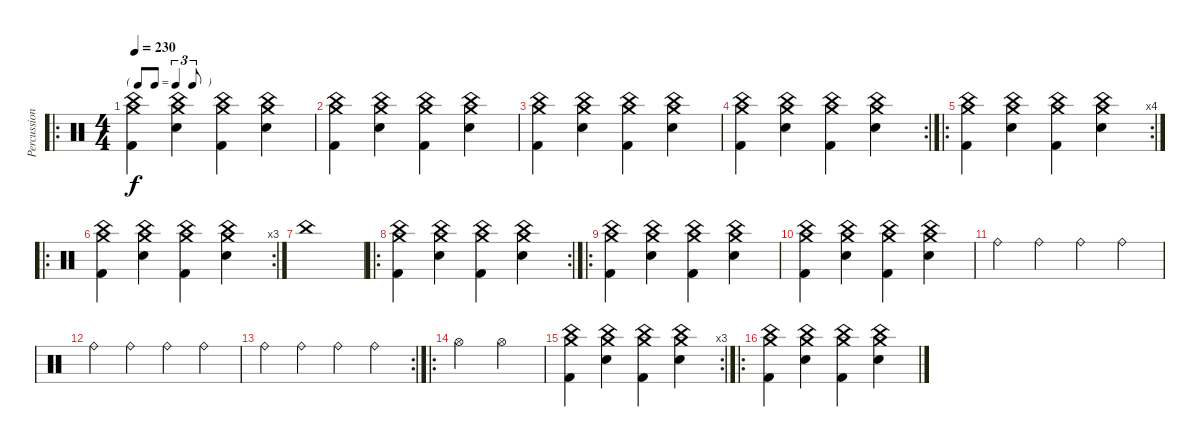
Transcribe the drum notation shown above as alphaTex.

\track ("Percussion" "Percussion") {instrument percussion}
\staff {score}
\articulation defaults
\ro
\ts (4 4)
\tf triplet8th
\tempo 230
\clef neutral
\ks c
("China (hit)" "Crash medium (hit)" "Kick (hit) 2").4{dy f} ("Electric Snare (hit)" "China (hit)" "Crash medium (hit)").4 ("Kick (hit) 2" "China (hit)" "Crash medium (hit)").4 ("Electric Snare (hit)" "China (hit)" "Crash medium (hit)").4 |
("China (hit)" "Crash medium (hit)" "Kick (hit) 2").4 ("Electric Snare (hit)" "China (hit)" "Crash medium (hit)").4 ("Kick (hit) 2" "China (hit)" "Crash medium (hit)").4 ("Electric Snare (hit)" "China (hit)" "Crash medium (hit)").4 |
("China (hit)" "Crash medium (hit)" "Kick (hit) 2").4 ("Electric Snare (hit)" "China (hit)" "Crash medium (hit)").4 ("Kick (hit) 2" "China (hit)" "Crash medium (hit)").4 ("Electric Snare (hit)" "China (hit)" "Crash medium (hit)").4 |
\rc 2
("China (hit)" "Crash medium (hit)" "Kick (hit) 2").4 ("Electric Snare (hit)" "China (hit)" "Crash medium (hit)").4 ("Kick (hit) 2" "China (hit)" "Crash medium (hit)").4 ("Electric Snare (hit)" "China (hit)" "Crash medium (hit)").4 |
\ro
\rc 4
("China (hit)" "Crash medium (hit)" "Kick (hit) 2").4 ("Electric Snare (hit)" "China (hit)" "Crash medium (hit)").4 ("Kick (hit) 2" "China (hit)" "Crash medium (hit)").4 ("Electric Snare (hit)" "China (hit)" "Crash medium (hit)").4 |
\ro
\rc 3
("China (hit)" "Crash medium (hit)" "Kick (hit) 2").4 ("Electric Snare (hit)" "China (hit)" "Crash medium (hit)").4 ("Kick (hit) 2" "China (hit)" "Crash medium (hit)").4 ("Electric Snare (hit)" "China (hit)" "Crash medium (hit)").4 |
"China (hit)".1 |
\ro
\rc 2
("China (hit)" "Crash medium (hit)" "Kick (hit) 2").4 ("Electric Snare (hit)" "China (hit)" "Crash medium (hit)").4 ("Kick (hit) 2" "China (hit)" "Crash medium (hit)").4 ("Electric Snare (hit)" "China (hit)" "Crash medium (hit)").4 |
\ro
("China (hit)" "Crash medium (hit)" "Kick (hit) 2").4 ("Electric Snare (hit)" "China (hit)" "Crash medium (hit)").4 ("Kick (hit) 2" "China (hit)" "Crash medium (hit)").4 ("Electric Snare (hit)" "China (hit)" "Crash medium (hit)").4 |
("China (hit)" "Crash medium (hit)" "Kick (hit) 2").4 ("Electric Snare (hit)" "China (hit)" "Crash medium (hit)").4 ("Kick (hit) 2" "China (hit)" "Crash medium (hit)").4 ("Electric Snare (hit)" "China (hit)" "Crash medium (hit)").4 |
"Ride (bell)".4 "Ride (bell)".4 "Ride (bell)".4 "Ride (bell)".4 |
"Ride (bell)".4 "Ride (bell)".4 "Ride (bell)".4 "Ride (bell)".4 |
\rc 2 "Ride (bell)".4 "Ride (bell)".4 "Ride (bell)".4 "Ride (bell)".4
|
\ro "Hi-Hat (open)".2 "Hi-Hat (open)".2
|
\rc 3
("China (hit)" "Crash medium (hit)" "Kick (hit) 2").4 ("Electric Snare (hit)" "China (hit)" "Crash medium (hit)").4 ("Kick (hit) 2" "China (hit)" "Crash medium (hit)").4 ("Electric Snare (hit)" "China (hit)" "Crash medium (hit)").4 |
\ro
("China (hit)" "Crash medium (hit)" "Kick (hit) 2").4 ("Electric Snare (hit)" "China (hit)" "Crash medium (hit)").4 ("Kick (hit) 2" "China (hit)" "Crash medium (hit)").4 ("Electric Snare (hit)" "China (hit)" "Crash medium (hit)").4
